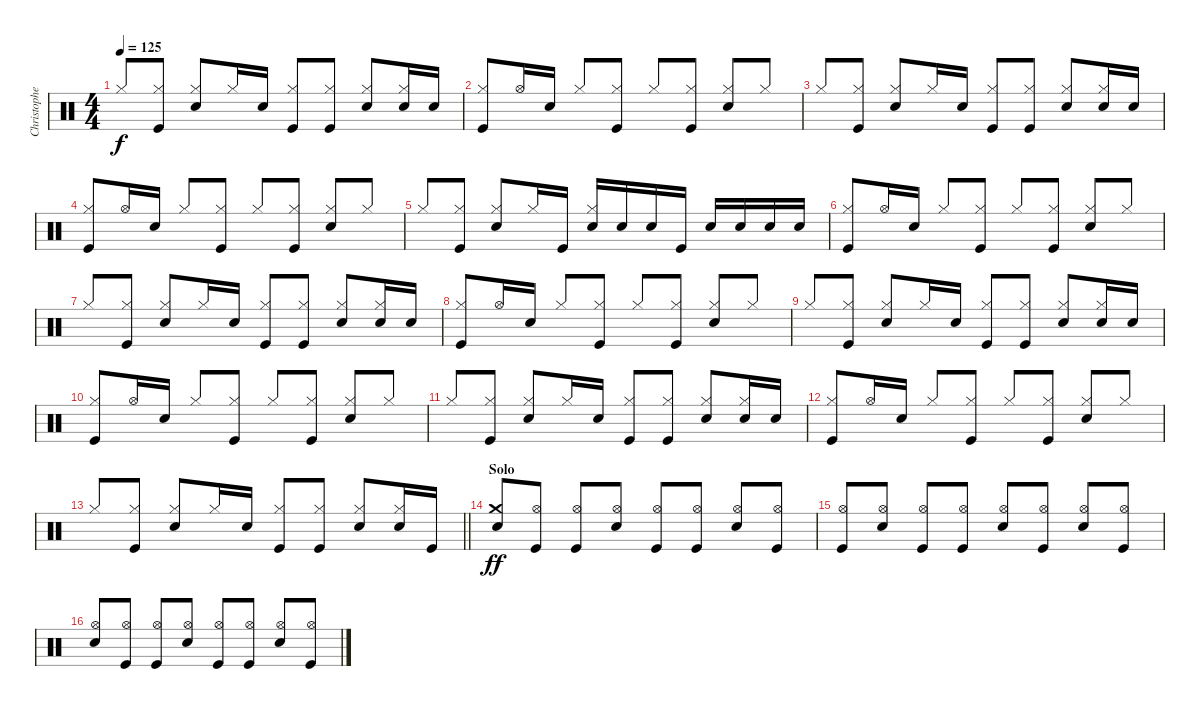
\track ("Christopher - Drums" "Christophe") {instrument percussion}
\staff {score}
\articulation defaults
\ts (4 4)
\tempo 125
\clef neutral
\ks c "Hi-Hat (closed)".8{dy f beam Up}
("Hi-Hat (closed)" "Kick (hit)").8{beam Up} ("Hi-Hat (closed)" "Electric Snare (hit)").8{beam Up} "Hi-Hat (closed)".16{beam Up} "Electric Snare (hit)".16{beam Up} ("Hi-Hat (closed)" "Kick (hit)").8{beam Up} ("Hi-Hat (closed)" "Kick (hit)").8{beam Up} ("Hi-Hat (closed)" "Electric Snare (hit)").8{beam Up} ("Hi-Hat (closed)" "Electric Snare (hit)").16{beam Up} "Electric Snare (hit)".16{beam Up} |
("Hi-Hat (closed)" "Kick (hit)").8{beam Up} "Hi-Hat (open)".16{beam Up} "Electric Snare (hit)".16{beam Up} "Hi-Hat (closed)".8{beam Up} ("Hi-Hat (closed)" "Kick (hit)").8{beam Up} "Hi-Hat (closed)".8{beam Up} ("Hi-Hat (closed)" "Kick (hit)").8{beam Up} ("Hi-Hat (closed)" "Electric Snare (hit)").8{beam Up} "Hi-Hat (closed)".8{beam Up} |
"Hi-Hat (closed)".8{beam Up} ("Hi-Hat (closed)" "Kick (hit)").8{beam Up} ("Hi-Hat (closed)" "Electric Snare (hit)").8{beam Up} "Hi-Hat (closed)".16{beam Up} "Electric Snare (hit)".16{beam Up} ("Hi-Hat (closed)" "Kick (hit)").8{beam Up} ("Hi-Hat (closed)" "Kick (hit)").8{beam Up} ("Hi-Hat (closed)" "Electric Snare (hit)").8{beam Up} ("Hi-Hat (closed)" "Electric Snare (hit)").16{beam Up} "Electric Snare (hit)".16{beam Up} |
("Hi-Hat (closed)" "Kick (hit)").8{beam Up} "Hi-Hat (open)".16{beam Up} "Electric Snare (hit)".16{beam Up} "Hi-Hat (closed)".8{beam Up} ("Hi-Hat (closed)" "Kick (hit)").8{beam Up} "Hi-Hat (closed)".8{beam Up} ("Hi-Hat (closed)" "Kick (hit)").8{beam Up} ("Hi-Hat (closed)" "Electric Snare (hit)").8{beam Up} "Hi-Hat (closed)".8{beam Up} |
"Hi-Hat (closed)".8{beam Up} ("Hi-Hat (closed)" "Kick (hit)").8{beam Up} ("Hi-Hat (closed)" "Electric Snare (hit)").8{beam Up} "Hi-Hat (closed)".16{beam Up} "Kick (hit)".16{beam Up} ("Hi-Hat (closed)" "Electric Snare (hit)").16{beam Up} "Electric Snare (hit)".16{beam Up} "Electric Snare (hit)".16{beam Up} "Kick (hit)".16{beam Up} "Electric Snare (hit)".16{beam Up} "Electric Snare (hit)".16{beam Up} "Electric Snare (hit)".16{beam Up} "Electric Snare (hit)".16{beam Up} |
("Hi-Hat (closed)" "Kick (hit)").8{beam Up} "Hi-Hat (open)".16{beam Up} "Electric Snare (hit)".16{beam Up} "Hi-Hat (closed)".8{beam Up} ("Hi-Hat (closed)" "Kick (hit)").8{beam Up} "Hi-Hat (closed)".8{beam Up} ("Hi-Hat (closed)" "Kick (hit)").8{beam Up} ("Hi-Hat (closed)" "Electric Snare (hit)").8{beam Up} "Hi-Hat (closed)".8{beam Up} |
"Hi-Hat (closed)".8{beam Up} ("Hi-Hat (closed)" "Kick (hit)").8{beam Up} ("Hi-Hat (closed)" "Electric Snare (hit)").8{beam Up} "Hi-Hat (closed)".16{beam Up} "Electric Snare (hit)".16{beam Up} ("Hi-Hat (closed)" "Kick (hit)").8{beam Up} ("Hi-Hat (closed)" "Kick (hit)").8{beam Up} ("Hi-Hat (closed)" "Electric Snare (hit)").8{beam Up} ("Hi-Hat (closed)" "Electric Snare (hit)").16{beam Up} "Electric Snare (hit)".16{beam Up} |
("Hi-Hat (closed)" "Kick (hit)").8{beam Up} "Hi-Hat (open)".16{beam Up} "Electric Snare (hit)".16{beam Up} "Hi-Hat (closed)".8{beam Up} ("Hi-Hat (closed)" "Kick (hit)").8{beam Up} "Hi-Hat (closed)".8{beam Up} ("Hi-Hat (closed)" "Kick (hit)").8{beam Up} ("Hi-Hat (closed)" "Electric Snare (hit)").8{beam Up} "Hi-Hat (closed)".8{beam Up} |
"Hi-Hat (closed)".8{beam Up} ("Hi-Hat (closed)" "Kick (hit)").8{beam Up} ("Hi-Hat (closed)" "Electric Snare (hit)").8{beam Up} "Hi-Hat (closed)".16{beam Up} "Electric Snare (hit)".16{beam Up} ("Hi-Hat (closed)" "Kick (hit)").8{beam Up} ("Hi-Hat (closed)" "Kick (hit)").8{beam Up} ("Hi-Hat (closed)" "Electric Snare (hit)").8{beam Up} ("Hi-Hat (closed)" "Electric Snare (hit)").16{beam Up} "Electric Snare (hit)".16{beam Up} |
("Hi-Hat (closed)" "Kick (hit)").8{beam Up} "Hi-Hat (open)".16{beam Up} "Electric Snare (hit)".16{beam Up} "Hi-Hat (closed)".8{beam Up} ("Hi-Hat (closed)" "Kick (hit)").8{beam Up} "Hi-Hat (closed)".8{beam Up} ("Hi-Hat (closed)" "Kick (hit)").8{beam Up} ("Hi-Hat (closed)" "Electric Snare (hit)").8{beam Up} "Hi-Hat (closed)".8{beam Up} |
"Hi-Hat (closed)".8{beam Up} ("Hi-Hat (closed)" "Kick (hit)").8{beam Up} ("Hi-Hat (closed)" "Electric Snare (hit)").8{beam Up} "Hi-Hat (closed)".16{beam Up} "Electric Snare (hit)".16{beam Up} ("Hi-Hat (closed)" "Kick (hit)").8{beam Up} ("Hi-Hat (closed)" "Kick (hit)").8{beam Up} ("Hi-Hat (closed)" "Electric Snare (hit)").8{beam Up} ("Hi-Hat (closed)" "Electric Snare (hit)").16{beam Up} "Electric Snare (hit)".16{beam Up} |
("Hi-Hat (closed)" "Kick (hit)").8{beam Up} "Hi-Hat (open)".16{beam Up} "Electric Snare (hit)".16{beam Up} "Hi-Hat (closed)".8{beam Up} ("Hi-Hat (closed)" "Kick (hit)").8{beam Up} "Hi-Hat (closed)".8{beam Up} ("Hi-Hat (closed)" "Kick (hit)").8{beam Up} ("Hi-Hat (closed)" "Electric Snare (hit)").8{beam Up} "Hi-Hat (closed)".8{beam Up} |
\barLineRight lightlight "Hi-Hat (closed)".8{beam Up}
("Hi-Hat (closed)" "Kick (hit)").8{beam Up} ("Hi-Hat (closed)" "Electric Snare (hit)").8{beam Up} "Hi-Hat (closed)".16{beam Up} "Electric Snare (hit)".16{beam Up} ("Hi-Hat (closed)" "Kick (hit)").8{beam Up} ("Hi-Hat (closed)" "Kick (hit)").8{beam Up} ("Hi-Hat (closed)" "Electric Snare (hit)").8{beam Up} ("Hi-Hat (closed)" "Electric Snare (hit)").16{beam Up} "Kick (hit)".16 |
\section ("" "Solo")
("Crash medium (hit)" "Electric Snare (hit)").8{dy ff volume 16 beam Up} ("Hi-Hat (open)" "Kick (hit)").8{beam Up} ("Hi-Hat (open)" "Kick (hit)").8{beam Up} ("Hi-Hat (open)" "Electric Snare (hit)").8{beam Up} ("Hi-Hat (open)" "Kick (hit)").8{beam Up} ("Hi-Hat (open)" "Kick (hit)").8{beam Up} ("Hi-Hat (open)" "Electric Snare (hit)").8{beam Up} ("Hi-Hat (open)" "Kick (hit)").8{beam Up} |
("Hi-Hat (open)" "Kick (hit)").8{beam Up} ("Hi-Hat (open)" "Electric Snare (hit)").8{beam Up} ("Hi-Hat (open)" "Kick (hit)").8{beam Up} ("Hi-Hat (open)" "Kick (hit)").8{beam Up} ("Hi-Hat (open)" "Electric Snare (hit)").8{beam Up} ("Hi-Hat (open)" "Kick (hit)").8{beam Up} ("Hi-Hat (open)" "Electric Snare (hit)").8{beam Up} ("Hi-Hat (open)" "Kick (hit)").8{beam Up} |
("Hi-Hat (open)" "Electric Snare (hit)").8{beam Up} ("Hi-Hat (open)" "Kick (hit)").8{beam Up} ("Hi-Hat (open)" "Kick (hit)").8{beam Up} ("Hi-Hat (open)" "Electric Snare (hit)").8{beam Up} ("Hi-Hat (open)" "Kick (hit)").8{beam Up} ("Hi-Hat (open)" "Kick (hit)").8{beam Up} ("Hi-Hat (open)" "Electric Snare (hit)").8{beam Up} ("Hi-Hat (open)" "Kick (hit)").8{beam Up}
